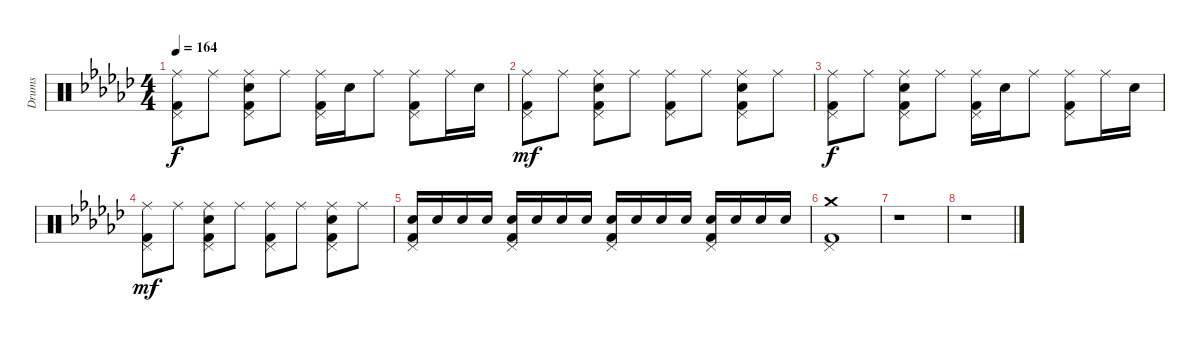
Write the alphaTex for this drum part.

\track ("Drums" "Drums") {instrument percussion}
\staff {score}
\articulation defaults
\ts (4 4)
\tempo 164
\clef neutral
\ks gb
("Ride (middle)" "Pedal Hi-Hat (hit)" "Kick (hit) 2").8{dy f} "Ride (middle)".8 ("Ride (middle)" "Snare (hit) 2" "Pedal Hi-Hat (hit)" "Kick (hit) 2").8 "Ride (middle)".8 ("Ride (middle)" "Pedal Hi-Hat (hit)" "Kick (hit) 2").16 "Snare (hit) 2".16 "Ride (middle)".8 ("Ride (middle)" "Pedal Hi-Hat (hit)" "Kick (hit) 2").8 "Ride (middle)".16 "Snare (hit) 2".16 |
("Ride (middle)" "Pedal Hi-Hat (hit)" "Kick (hit) 2").8{dy mf} "Ride (middle)".8 ("Ride (middle)" "Snare (hit) 2" "Pedal Hi-Hat (hit)" "Kick (hit) 2").8 "Ride (middle)".8 ("Ride (middle)" "Pedal Hi-Hat (hit)" "Kick (hit) 2").8 "Ride (middle)".8 ("Ride (middle)" "Snare (hit) 2" "Pedal Hi-Hat (hit)" "Kick (hit) 2").8 "Ride (middle)".8 |
("Ride (middle)" "Pedal Hi-Hat (hit)" "Kick (hit) 2").8{dy f} "Ride (middle)".8 ("Ride (middle)" "Snare (hit) 2" "Pedal Hi-Hat (hit)" "Kick (hit) 2").8 "Ride (middle)".8 ("Ride (middle)" "Pedal Hi-Hat (hit)" "Kick (hit) 2").16 "Snare (hit) 2".16 "Ride (middle)".8 ("Ride (middle)" "Pedal Hi-Hat (hit)" "Kick (hit) 2").8 "Ride (middle)".16 "Snare (hit) 2".16 |
("Ride (middle)" "Pedal Hi-Hat (hit)" "Kick (hit) 2").8{dy mf} "Ride (middle)".8 ("Ride (middle)" "Snare (hit) 2" "Pedal Hi-Hat (hit)" "Kick (hit) 2").8 "Ride (middle)".8 ("Ride (middle)" "Pedal Hi-Hat (hit)" "Kick (hit) 2").8 "Ride (middle)".8 ("Ride (middle)" "Snare (hit) 2" "Pedal Hi-Hat (hit)" "Kick (hit) 2").8 "Ride (middle)".8 |
("Snare (hit) 2" "Pedal Hi-Hat (hit)" "Kick (hit) 2").16 "Snare (hit) 2".16 "Snare (hit) 2".16 "Snare (hit) 2".16 ("Snare (hit) 2" "Pedal Hi-Hat (hit)" "Kick (hit) 2").16 "Snare (hit) 2".16 "Snare (hit) 2".16 "Snare (hit) 2".16 ("Snare (hit) 2" "Pedal Hi-Hat (hit)" "Kick (hit) 2").16 "Snare (hit) 2".16 "Snare (hit) 2".16 "Snare (hit) 2".16 ("Snare (hit) 2" "Pedal Hi-Hat (hit)" "Kick (hit) 2").16 "Snare (hit) 2".16 "Snare (hit) 2".16 "Snare (hit) 2".16 |
("Crash medium (hit)" "Pedal Hi-Hat (hit)" "Kick (hit) 2").1 |
r.1 |
r.1
